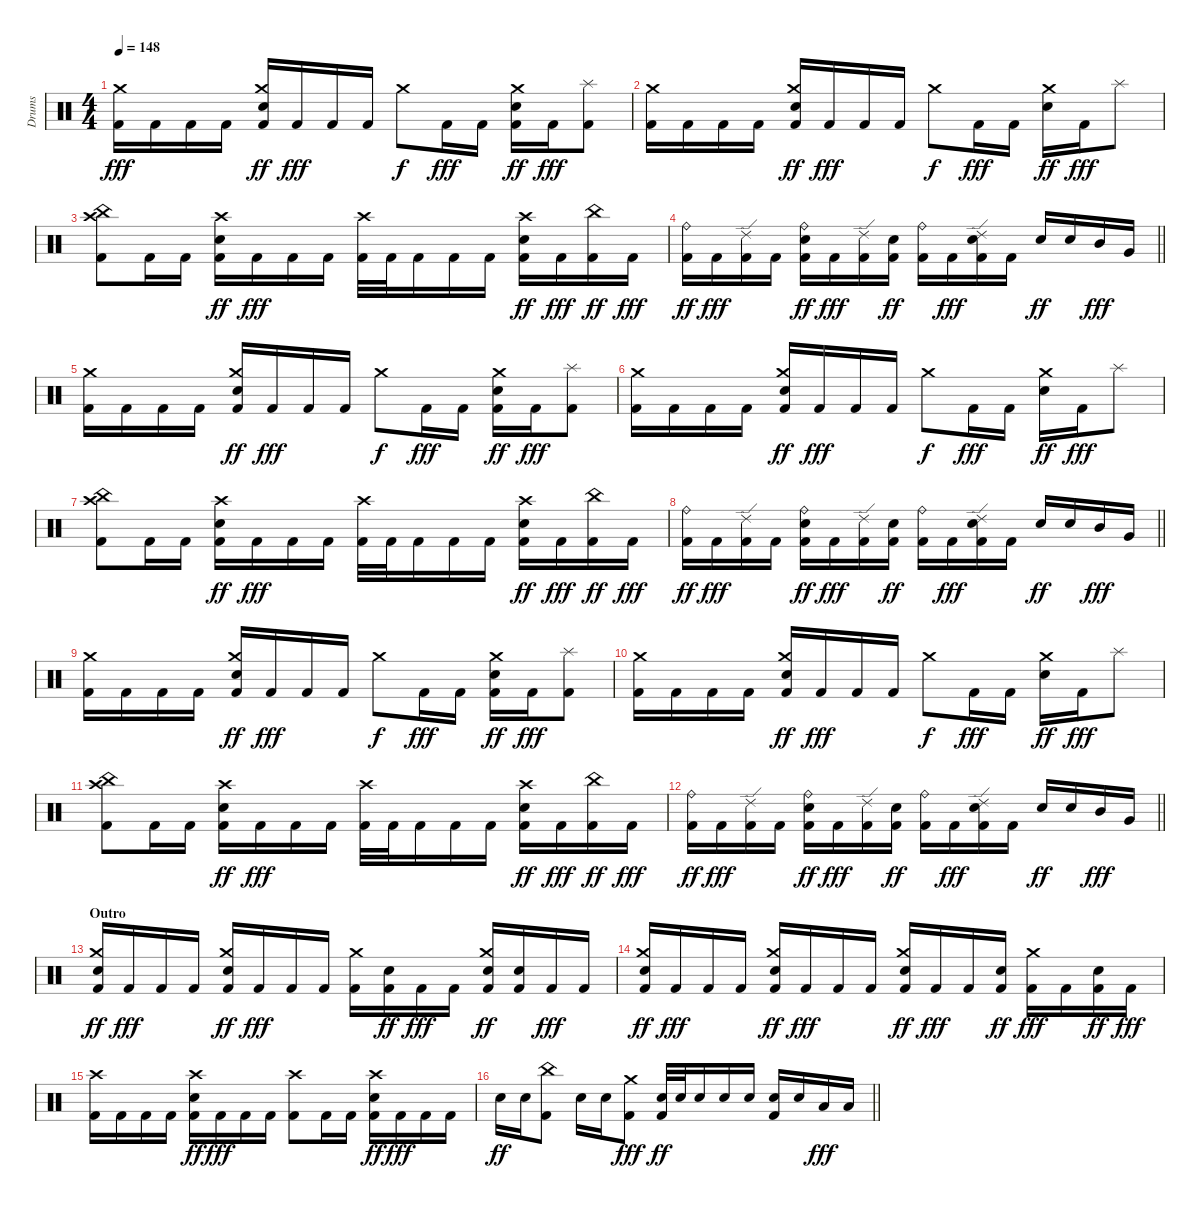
\track ("Drums" "Drums") {instrument percussion}
\staff {score}
\articulation defaults
\ts (4 4)
\tempo 148
\clef neutral
\ks c
("Kick (hit) 2" "Crash medium (hit)").16{dy fff} "Kick (hit) 2".16 "Kick (hit) 2".16 "Kick (hit) 2".16 ("Kick (hit) 2" "Snare (hit) 2" "Crash medium (hit)").16{dy ff} "Kick (hit) 2".16{dy fff} "Kick (hit) 2".16 "Kick (hit) 2".16 "Crash medium (hit)".8{dy f} "Kick (hit) 2".16{dy fff} "Kick (hit) 2".16 ("Kick (hit) 2" "Snare (hit) 2" "Crash medium (hit)").16{dy ff} "Kick (hit) 2".16{dy fff} ("Kick (hit) 2" "Splash (hit)").8 |
("Kick (hit) 2" "Crash medium (hit)").16 "Kick (hit) 2".16 "Kick (hit) 2".16 "Kick (hit) 2".16 ("Kick (hit) 2" "Snare (hit) 2" "Crash medium (hit)").16{dy ff} "Kick (hit) 2".16{dy fff} "Kick (hit) 2".16 "Kick (hit) 2".16 "Crash medium (hit)".8{dy f} "Kick (hit) 2".16{dy fff} "Kick (hit) 2".16 ("Snare (hit) 2" "Crash medium (hit)").16{dy ff} "Kick (hit) 2".16{dy fff} "Splash (hit)".8 |
("Kick (hit) 2" "China (hit)" "Crash high (hit)").8 "Kick (hit) 2".16 "Kick (hit) 2".16 ("Kick (hit) 2" "Snare (hit) 2" "Crash high (hit)").16{dy ff} "Kick (hit) 2".16{dy fff} "Kick (hit) 2".16 "Kick (hit) 2".16 ("Kick (hit) 2" "Crash high (hit)").32 "Kick (hit) 2".32 "Kick (hit) 2".16 "Kick (hit) 2".16 "Kick (hit) 2".16 ("Kick (hit) 2" "Snare (hit) 2" "Crash high (hit)").16{dy ff} "Kick (hit) 2".16{dy fff} ("Kick (hit) 2" "China (hit)").16{dy ff} "Kick (hit) 2".16{dy fff} |
\barLineRight lightlight
("Kick (hit) 2" "Ride (bell)").16{dy ff} "Kick (hit) 2".16{dy fff} ("Kick (hit) 2" "Ride (edge) 2").16 "Kick (hit) 2".16 ("Kick (hit) 2" "Snare (hit) 2" "Ride (bell)").16{dy ff} "Kick (hit) 2".16{dy fff} ("Kick (hit) 2" "Ride (edge) 2").16 ("Kick (hit) 2" "Snare (hit) 2").16{dy ff} ("Kick (hit) 2" "Ride (bell)").16 "Kick (hit) 2".16{dy fff} ("Kick (hit) 2" "Snare (hit) 2" "Ride (edge) 2").16 "Kick (hit) 2".16 "Snare (hit) 2".16{dy ff} "Snare (hit) 2".16 "Mid Tom (hit)".16{dy fff} "Very Low Tom (hit)".16 |
("Kick (hit) 2" "Crash medium (hit)").16 "Kick (hit) 2".16 "Kick (hit) 2".16 "Kick (hit) 2".16 ("Kick (hit) 2" "Snare (hit) 2" "Crash medium (hit)").16{dy ff} "Kick (hit) 2".16{dy fff} "Kick (hit) 2".16 "Kick (hit) 2".16 "Crash medium (hit)".8{dy f} "Kick (hit) 2".16{dy fff} "Kick (hit) 2".16 ("Kick (hit) 2" "Snare (hit) 2" "Crash medium (hit)").16{dy ff} "Kick (hit) 2".16{dy fff} ("Kick (hit) 2" "Splash (hit)").8 |
("Kick (hit) 2" "Crash medium (hit)").16 "Kick (hit) 2".16 "Kick (hit) 2".16 "Kick (hit) 2".16 ("Kick (hit) 2" "Snare (hit) 2" "Crash medium (hit)").16{dy ff} "Kick (hit) 2".16{dy fff} "Kick (hit) 2".16 "Kick (hit) 2".16 "Crash medium (hit)".8{dy f} "Kick (hit) 2".16{dy fff} "Kick (hit) 2".16 ("Snare (hit) 2" "Crash medium (hit)").16{dy ff} "Kick (hit) 2".16{dy fff} "Splash (hit)".8 |
("Kick (hit) 2" "China (hit)" "Crash high (hit)").8 "Kick (hit) 2".16 "Kick (hit) 2".16 ("Kick (hit) 2" "Snare (hit) 2" "Crash high (hit)").16{dy ff} "Kick (hit) 2".16{dy fff} "Kick (hit) 2".16 "Kick (hit) 2".16 ("Kick (hit) 2" "Crash high (hit)").32 "Kick (hit) 2".32 "Kick (hit) 2".16 "Kick (hit) 2".16 "Kick (hit) 2".16 ("Kick (hit) 2" "Snare (hit) 2" "Crash high (hit)").16{dy ff} "Kick (hit) 2".16{dy fff} ("Kick (hit) 2" "China (hit)").16{dy ff} "Kick (hit) 2".16{dy fff} |
\barLineRight lightlight
("Kick (hit) 2" "Ride (bell)").16{dy ff} "Kick (hit) 2".16{dy fff} ("Kick (hit) 2" "Ride (edge) 2").16 "Kick (hit) 2".16 ("Kick (hit) 2" "Snare (hit) 2" "Ride (bell)").16{dy ff} "Kick (hit) 2".16{dy fff} ("Kick (hit) 2" "Ride (edge) 2").16 ("Kick (hit) 2" "Snare (hit) 2").16{dy ff} ("Kick (hit) 2" "Ride (bell)").16 "Kick (hit) 2".16{dy fff} ("Kick (hit) 2" "Snare (hit) 2" "Ride (edge) 2").16 "Kick (hit) 2".16 "Snare (hit) 2".16{dy ff} "Snare (hit) 2".16 "Mid Tom (hit)".16{dy fff} "Very Low Tom (hit)".16 |
("Kick (hit) 2" "Crash medium (hit)").16 "Kick (hit) 2".16 "Kick (hit) 2".16 "Kick (hit) 2".16 ("Kick (hit) 2" "Snare (hit) 2" "Crash medium (hit)").16{dy ff} "Kick (hit) 2".16{dy fff} "Kick (hit) 2".16 "Kick (hit) 2".16 "Crash medium (hit)".8{dy f} "Kick (hit) 2".16{dy fff} "Kick (hit) 2".16 ("Kick (hit) 2" "Snare (hit) 2" "Crash medium (hit)").16{dy ff} "Kick (hit) 2".16{dy fff} ("Kick (hit) 2" "Splash (hit)").8 |
("Kick (hit) 2" "Crash medium (hit)").16 "Kick (hit) 2".16 "Kick (hit) 2".16 "Kick (hit) 2".16 ("Kick (hit) 2" "Snare (hit) 2" "Crash medium (hit)").16{dy ff} "Kick (hit) 2".16{dy fff} "Kick (hit) 2".16 "Kick (hit) 2".16 "Crash medium (hit)".8{dy f} "Kick (hit) 2".16{dy fff} "Kick (hit) 2".16 ("Snare (hit) 2" "Crash medium (hit)").16{dy ff} "Kick (hit) 2".16{dy fff} "Splash (hit)".8 |
("Kick (hit) 2" "China (hit)" "Crash high (hit)").8 "Kick (hit) 2".16 "Kick (hit) 2".16 ("Kick (hit) 2" "Snare (hit) 2" "Crash high (hit)").16{dy ff} "Kick (hit) 2".16{dy fff} "Kick (hit) 2".16 "Kick (hit) 2".16 ("Kick (hit) 2" "Crash high (hit)").32 "Kick (hit) 2".32 "Kick (hit) 2".16 "Kick (hit) 2".16 "Kick (hit) 2".16 ("Kick (hit) 2" "Snare (hit) 2" "Crash high (hit)").16{dy ff} "Kick (hit) 2".16{dy fff} ("Kick (hit) 2" "China (hit)").16{dy ff} "Kick (hit) 2".16{dy fff} |
\barLineRight lightlight
("Kick (hit) 2" "Ride (bell)").16{dy ff} "Kick (hit) 2".16{dy fff} ("Kick (hit) 2" "Ride (edge) 2").16 "Kick (hit) 2".16 ("Kick (hit) 2" "Snare (hit) 2" "Ride (bell)").16{dy ff} "Kick (hit) 2".16{dy fff} ("Kick (hit) 2" "Ride (edge) 2").16 ("Kick (hit) 2" "Snare (hit) 2").16{dy ff} ("Kick (hit) 2" "Ride (bell)").16 "Kick (hit) 2".16{dy fff} ("Kick (hit) 2" "Snare (hit) 2" "Ride (edge) 2").16 "Kick (hit) 2".16 "Snare (hit) 2".16{dy ff} "Snare (hit) 2".16 "Mid Tom (hit)".16{dy fff} "Very Low Tom (hit)".16 |
\section ("" "Outro")
("Kick (hit) 2" "Snare (hit) 2" "Crash medium (hit)").16{dy ff} "Kick (hit) 2".16{dy fff} "Kick (hit) 2".16 "Kick (hit) 2".16 ("Kick (hit) 2" "Snare (hit) 2" "Crash medium (hit)").16{dy ff} "Kick (hit) 2".16{dy fff} "Kick (hit) 2".16 "Kick (hit) 2".16 ("Kick (hit) 2" "Crash medium (hit)").16 ("Kick (hit) 2" "Snare (hit) 2").16{dy ff} "Kick (hit) 2".16{dy fff} "Kick (hit) 2".16 ("Kick (hit) 2" "Snare (hit) 2" "Crash medium (hit)").16{dy ff} ("Kick (hit) 2" "Snare (hit) 2").16 "Kick (hit) 2".16{dy fff} "Kick (hit) 2".16 |
("Kick (hit) 2" "Snare (hit) 2" "Crash medium (hit)").16{dy ff} "Kick (hit) 2".16{dy fff} "Kick (hit) 2".16 "Kick (hit) 2".16 ("Kick (hit) 2" "Snare (hit) 2" "Crash medium (hit)").16{dy ff} "Kick (hit) 2".16{dy fff} "Kick (hit) 2".16 "Kick (hit) 2".16 ("Kick (hit) 2" "Snare (hit) 2" "Crash medium (hit)").16{dy ff} "Kick (hit) 2".16{dy fff} "Kick (hit) 2".16 ("Kick (hit) 2" "Snare (hit) 2").16{dy ff} ("Kick (hit) 2" "Crash medium (hit)").16{dy fff} "Kick (hit) 2".16 ("Kick (hit) 2" "Snare (hit) 2").16{dy ff} "Kick (hit) 2".16{dy fff} |
("Kick (hit) 2" "Crash high (hit)").16 "Kick (hit) 2".16 "Kick (hit) 2".16 "Kick (hit) 2".16 ("Kick (hit) 2" "Snare (hit) 2" "Crash high (hit)").16{dy ff} "Kick (hit) 2".16{dy fff} "Kick (hit) 2".16 "Kick (hit) 2".16 ("Kick (hit) 2" "Crash high (hit)").8 "Kick (hit) 2".16 "Kick (hit) 2".16 ("Kick (hit) 2" "Snare (hit) 2" "Crash high (hit)").16{dy ff} "Kick (hit) 2".16{dy fff} "Kick (hit) 2".16 "Kick (hit) 2".16 |
\barLineRight lightlight "Snare (hit) 2".16{dy ff} "Snare (hit) 2".16
("Kick (hit) 2" "China (hit)").8 "Snare (hit) 2".16 "Snare (hit) 2".16 ("Kick (hit) 2" "Crash medium (hit)").8{dy fff} ("Kick (hit) 2" "Snare (hit) 2").32{dy ff} "Snare (hit) 2".32 "Snare (hit) 2".16 "Snare (hit) 2".16 "Snare (hit) 2".16 ("Kick (hit) 2" "Snare (hit) 2").16 "Snare (hit) 2".16 "Low Tom (hit)".16{dy fff} "Low Floor Tom (hit)".16
